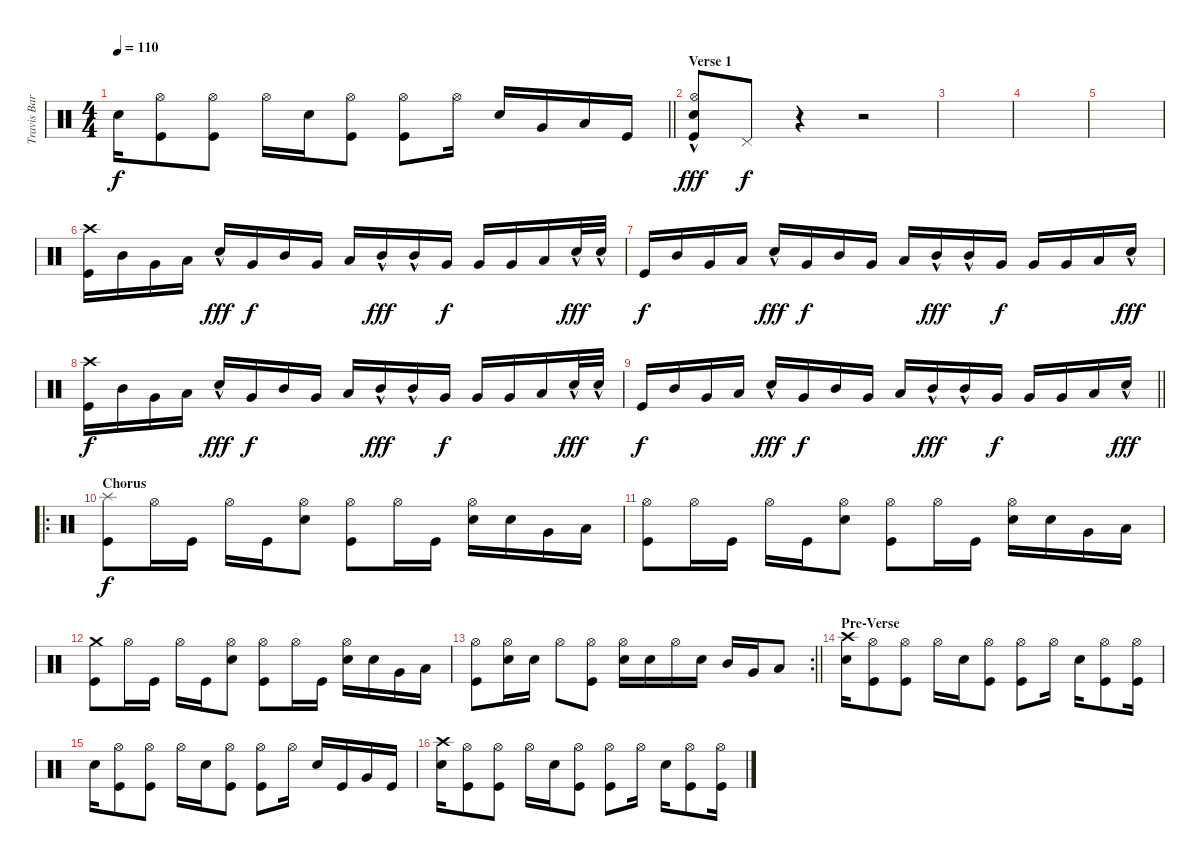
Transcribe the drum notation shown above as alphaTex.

\track ("Travis Barker (Drums)" "Travis Bar") {instrument percussion bank 10}
\staff {score}
\articulation defaults
\ts (4 4)
\tempo 110
\clef neutral
\barLineRight lightlight
\ks c "Snare (hit) 2".16{dy f}
("Hi-Hat (open)" "Kick (hit)").8 ("Hi-Hat (open)" "Kick (hit)").8 "Hi-Hat (open)".16 "Snare (hit) 2".16 ("Hi-Hat (open)" "Kick (hit)").8 ("Hi-Hat (open)" "Kick (hit)").8 "Hi-Hat (open)".16 "Snare (hit) 2".16 "Very Low Tom (hit)".16 "Low Floor Tom (hit)".16 "Kick (hit)".16 |
\section ("" "Verse 1")
("Hi-Hat (open)" "Snare (hit) 2"{hac} "Kick (hit)").8{dy fff} "Pedal Hi-Hat (hit)".8{dy f} r.4 r.2 |
|
|
|
("Crash high (hit)" "Kick (hit)").16 "Mid Tom (hit)".16 "Very Low Tom (hit)".16 "Low Floor Tom (hit)".16 "Snare (hit) 2"{hac}.16{dy fff} "Very Low Tom (hit)".16{dy f} "Mid Tom (hit)".16 "Very Low Tom (hit)".16 "Low Floor Tom (hit)".16 "Mid Tom (hit)"{hac}.16{dy fff} "Mid Tom (hit)"{hac}.16 "Very Low Tom (hit)".16{dy f} "Very Low Tom (hit)".16 "Very Low Tom (hit)".16 "Low Floor Tom (hit)".16 "Snare (hit) 2"{hac}.32{dy fff} "Snare (hit) 2"{hac}.32 |
"Kick (hit)".16{dy f} "Mid Tom (hit)".16 "Very Low Tom (hit)".16 "Low Floor Tom (hit)".16 "Snare (hit) 2"{hac}.16{dy fff} "Very Low Tom (hit)".16{dy f} "Mid Tom (hit)".16 "Very Low Tom (hit)".16 "Low Floor Tom (hit)".16 "Mid Tom (hit)"{hac}.16{dy fff} "Mid Tom (hit)"{hac}.16 "Very Low Tom (hit)".16{dy f} "Very Low Tom (hit)".16 "Very Low Tom (hit)".16 "Low Floor Tom (hit)".16 "Snare (hit) 2"{hac}.16{dy fff} |
("Crash high (hit)" "Kick (hit)").16{dy f} "Mid Tom (hit)".16 "Very Low Tom (hit)".16 "Low Floor Tom (hit)".16 "Snare (hit) 2"{hac}.16{dy fff} "Very Low Tom (hit)".16{dy f} "Mid Tom (hit)".16 "Very Low Tom (hit)".16 "Low Floor Tom (hit)".16 "Mid Tom (hit)"{hac}.16{dy fff} "Mid Tom (hit)"{hac}.16 "Very Low Tom (hit)".16{dy f} "Very Low Tom (hit)".16 "Very Low Tom (hit)".16 "Low Floor Tom (hit)".16 "Snare (hit) 2"{hac}.32{dy fff} "Snare (hit) 2"{hac}.32 |
\barLineRight lightlight "Kick (hit)".16{dy f} "Mid Tom (hit)".16 "Very Low Tom (hit)".16 "Low Floor Tom (hit)".16 "Snare (hit) 2"{hac}.16{dy fff} "Very Low Tom (hit)".16{dy f} "Mid Tom (hit)".16 "Very Low Tom (hit)".16 "Low Floor Tom (hit)".16 "Mid Tom (hit)"{hac}.16{dy fff} "Mid Tom (hit)"{hac}.16 "Very Low Tom (hit)".16{dy f} "Very Low Tom (hit)".16 "Very Low Tom (hit)".16 "Low Floor Tom (hit)".16 "Snare (hit) 2"{hac}.16{dy fff}
|
\ro
\section ("" "Chorus")
("Splash (hit)" "Kick (hit)").8{dy f} "Hi-Hat (open)".16 "Kick (hit)".16 "Hi-Hat (open)".16 "Kick (hit)".16 ("Hi-Hat (open)" "Snare (hit) 2").8 ("Hi-Hat (open)" "Kick (hit)").8 "Hi-Hat (open)".16 "Kick (hit)".16 ("Hi-Hat (open)" "Snare (hit) 2").16 "Snare (hit) 2".16 "Very Low Tom (hit)".16 "Low Floor Tom (hit)".16 |
("Hi-Hat (open)" "Kick (hit)").8 "Hi-Hat (open)".16 "Kick (hit)".16 "Hi-Hat (open)".16 "Kick (hit)".16 ("Hi-Hat (open)" "Snare (hit) 2").8 ("Hi-Hat (open)" "Kick (hit)").8 "Hi-Hat (open)".16 "Kick (hit)".16 ("Hi-Hat (open)" "Snare (hit) 2").16 "Snare (hit) 2".16 "Very Low Tom (hit)".16 "Low Floor Tom (hit)".16 |
("Crash medium (hit)" "Kick (hit)").8 "Hi-Hat (open)".16 "Kick (hit)".16 "Hi-Hat (open)".16 "Kick (hit)".16 ("Hi-Hat (open)" "Snare (hit) 2").8 ("Hi-Hat (open)" "Kick (hit)").8 "Hi-Hat (open)".16 "Kick (hit)".16 ("Hi-Hat (open)" "Snare (hit) 2").16 "Snare (hit) 2".16 "Very Low Tom (hit)".16 "Low Floor Tom (hit)".16 |
\rc 2
\barLineRight lightlight
("Hi-Hat (open)" "Kick (hit)").8 ("Hi-Hat (open)" "Snare (hit) 2").16 "Snare (hit) 2".16 "Hi-Hat (open)".8 ("Hi-Hat (open)" "Kick (hit)").8 ("Hi-Hat (open)" "Snare (hit) 2").16 "Snare (hit) 2".16 "Hi-Hat (open)".16 "Snare (hit) 2".16 "Mid Tom (hit)".16 "Very Low Tom (hit)".16 "Low Floor Tom (hit)".8 |
\section ("" "Pre-Verse ")
("Crash high (hit)" "Snare (hit) 2").16 ("Hi-Hat (open)" "Kick (hit)").8 ("Hi-Hat (open)" "Kick (hit)").8 "Hi-Hat (open)".16 "Snare (hit) 2".16 ("Hi-Hat (open)" "Kick (hit)").8 ("Hi-Hat (open)" "Kick (hit)").8 "Hi-Hat (open)".16 "Snare (hit) 2".16 ("Hi-Hat (open)" "Kick (hit)").8 ("Hi-Hat (open)" "Kick (hit)").16 |
"Snare (hit) 2".16 ("Hi-Hat (open)" "Kick (hit)").8 ("Hi-Hat (open)" "Kick (hit)").8 "Hi-Hat (open)".16 "Snare (hit) 2".16 ("Hi-Hat (open)" "Kick (hit)").8 ("Hi-Hat (open)" "Kick (hit)").8 "Hi-Hat (open)".16 "Snare (hit) 2".16 "Kick (hit)".16 "Very Low Tom (hit)".16 "Kick (hit)".16 |
("Crash high (hit)" "Snare (hit) 2").16 ("Hi-Hat (open)" "Kick (hit)").8 ("Hi-Hat (open)" "Kick (hit)").8 "Hi-Hat (open)".16 "Snare (hit) 2".16 ("Hi-Hat (open)" "Kick (hit)").8 ("Hi-Hat (open)" "Kick (hit)").8 "Hi-Hat (open)".16 "Snare (hit) 2".16 ("Hi-Hat (open)" "Kick (hit)").8 ("Hi-Hat (open)" "Kick (hit)").16
